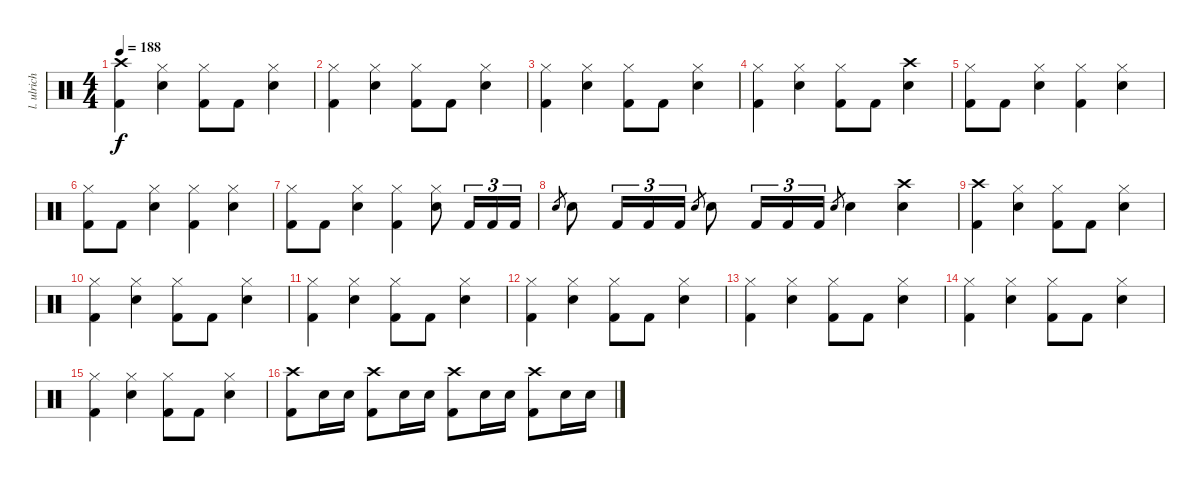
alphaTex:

\track ("l. ulrich - drums" "l. ulrich ") {instrument percussion}
\staff {score}
\articulation defaults
\ts (4 4)
\tempo 188
\clef neutral
\ks c
("Crash high (hit)" "Kick (hit) 2").4{dy f} ("Hi-Hat (closed)" "Snare (hit) 2").4 ("Hi-Hat (closed)" "Kick (hit) 2").8 "Kick (hit) 2".8 ("Hi-Hat (closed)" "Snare (hit) 2").4 |
("Hi-Hat (closed)" "Kick (hit) 2").4 ("Hi-Hat (closed)" "Snare (hit) 2").4 ("Hi-Hat (closed)" "Kick (hit) 2").8 "Kick (hit) 2".8 ("Hi-Hat (closed)" "Snare (hit) 2").4 |
("Hi-Hat (closed)" "Kick (hit) 2").4 ("Hi-Hat (closed)" "Snare (hit) 2").4 ("Hi-Hat (closed)" "Kick (hit) 2").8 "Kick (hit) 2".8 ("Hi-Hat (closed)" "Snare (hit) 2").4 |
("Hi-Hat (closed)" "Kick (hit) 2").4 ("Hi-Hat (closed)" "Snare (hit) 2").4 ("Hi-Hat (closed)" "Kick (hit) 2").8 "Kick (hit) 2".8 ("Crash high (hit)" "Snare (hit) 2").4 |
("Hi-Hat (closed)" "Kick (hit) 2").8 "Kick (hit) 2".8 ("Hi-Hat (closed)" "Snare (hit) 2").4 ("Hi-Hat (closed)" "Kick (hit) 2").4 ("Hi-Hat (closed)" "Snare (hit) 2").4 |
("Hi-Hat (closed)" "Kick (hit) 2").8 "Kick (hit) 2".8 ("Hi-Hat (closed)" "Snare (hit) 2").4 ("Hi-Hat (closed)" "Kick (hit) 2").4 ("Hi-Hat (closed)" "Snare (hit) 2").4 |
("Hi-Hat (closed)" "Kick (hit) 2").8 "Kick (hit) 2".8 ("Hi-Hat (closed)" "Snare (hit) 2").4 ("Hi-Hat (closed)" "Kick (hit) 2").4 ("Hi-Hat (closed)" "Snare (hit) 2").8 "Kick (hit) 2".16{tu (3 2)} "Kick (hit) 2".16{tu (3 2)} "Kick (hit) 2".16{tu (3 2)} |
"Snare (hit) 2".8{gr} "Snare (hit) 2".8 "Kick (hit) 2".16{tu (3 2)} "Kick (hit) 2".16{tu (3 2)} "Kick (hit) 2".16{tu (3 2)} "Snare (hit) 2".8{gr} "Snare (hit) 2".8 "Kick (hit) 2".16{tu (3 2)} "Kick (hit) 2".16{tu (3 2)} "Kick (hit) 2".16{tu (3 2)} "Snare (hit) 2".8{gr} "Snare (hit) 2".4 ("Crash high (hit)" "Snare (hit) 2").4 |
("Crash high (hit)" "Kick (hit) 2").4 ("Hi-Hat (closed)" "Snare (hit) 2").4 ("Hi-Hat (closed)" "Kick (hit) 2").8 "Kick (hit) 2".8 ("Hi-Hat (closed)" "Snare (hit) 2").4 |
("Hi-Hat (closed)" "Kick (hit) 2").4 ("Hi-Hat (closed)" "Snare (hit) 2").4 ("Hi-Hat (closed)" "Kick (hit) 2").8 "Kick (hit) 2".8 ("Hi-Hat (closed)" "Snare (hit) 2").4 |
("Hi-Hat (closed)" "Kick (hit) 2").4 ("Hi-Hat (closed)" "Snare (hit) 2").4 ("Hi-Hat (closed)" "Kick (hit) 2").8 "Kick (hit) 2".8 ("Hi-Hat (closed)" "Snare (hit) 2").4 |
("Hi-Hat (closed)" "Kick (hit) 2").4 ("Hi-Hat (closed)" "Snare (hit) 2").4 ("Hi-Hat (closed)" "Kick (hit) 2").8 "Kick (hit) 2".8 ("Hi-Hat (closed)" "Snare (hit) 2").4 |
("Hi-Hat (closed)" "Kick (hit) 2").4 ("Hi-Hat (closed)" "Snare (hit) 2").4 ("Hi-Hat (closed)" "Kick (hit) 2").8 "Kick (hit) 2".8 ("Hi-Hat (closed)" "Snare (hit) 2").4 |
("Hi-Hat (closed)" "Kick (hit) 2").4 ("Hi-Hat (closed)" "Snare (hit) 2").4 ("Hi-Hat (closed)" "Kick (hit) 2").8 "Kick (hit) 2".8 ("Hi-Hat (closed)" "Snare (hit) 2").4 |
("Hi-Hat (closed)" "Kick (hit) 2").4 ("Hi-Hat (closed)" "Snare (hit) 2").4 ("Hi-Hat (closed)" "Kick (hit) 2").8 "Kick (hit) 2".8 ("Hi-Hat (closed)" "Snare (hit) 2").4 |
("Crash high (hit)" "Kick (hit) 2").8 "Snare (hit) 2".16 "Snare (hit) 2".16 ("Crash high (hit)" "Kick (hit) 2").8 "Snare (hit) 2".16 "Snare (hit) 2".16 ("Crash high (hit)" "Kick (hit) 2").8 "Snare (hit) 2".16 "Snare (hit) 2".16 ("Crash high (hit)" "Kick (hit) 2").8 "Snare (hit) 2".16 "Snare (hit) 2".16
